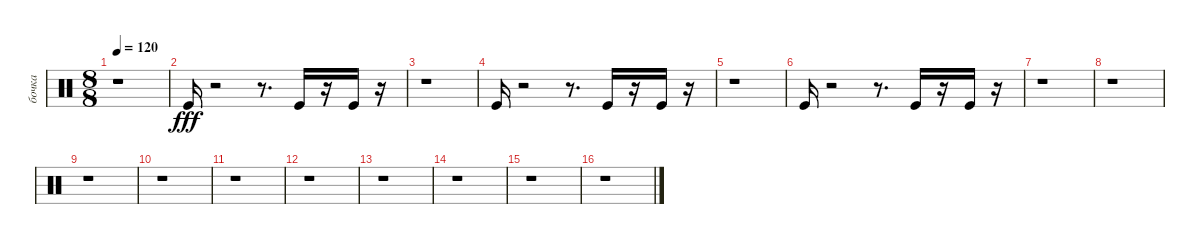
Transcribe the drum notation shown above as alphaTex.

\track ("бочка" "бочка") {instrument percussion}
\staff {score}
\articulation defaults
\ts (8 8)
\tempo 120
\clef neutral
\ks c
r.1{dy fff} |
"Kick (hit)".16 r.2 r.8{d} "Kick (hit)".16 r.16 "Kick (hit)".16 r.16 |
r.1 |
"Kick (hit)".16 r.2 r.8{d} "Kick (hit)".16 r.16 "Kick (hit)".16 r.16 |
r.1 |
"Kick (hit)".16 r.2 r.8{d} "Kick (hit)".16 r.16 "Kick (hit)".16 r.16 |
r.1 |
r.1 |
r.1 |
r.1 |
r.1 |
r.1 |
r.1 |
r.1 |
r.1 |
r.1
